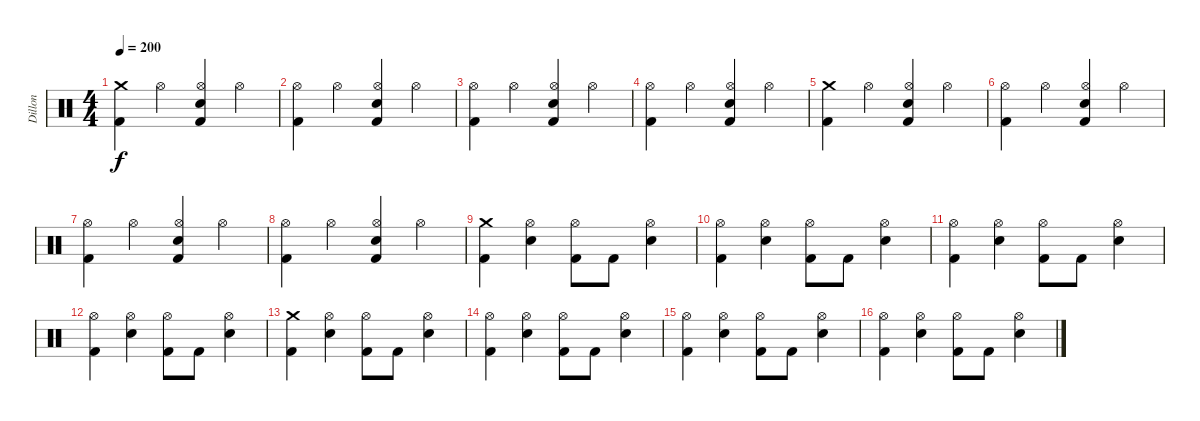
\track ("Dillon" "Dillon") {instrument percussion}
\staff {score}
\articulation defaults
\ts (4 4)
\tempo 200
\clef neutral
\ks c
("Crash medium (hit)" "Kick (hit) 2").4{dy f} "Hi-Hat (open)".4 ("Hi-Hat (open)" "Electric Snare (hit)" "Kick (hit) 2").4 "Hi-Hat (open)".4 |
("Hi-Hat (open)" "Kick (hit) 2").4 "Hi-Hat (open)".4 ("Hi-Hat (open)" "Electric Snare (hit)" "Kick (hit) 2").4 "Hi-Hat (open)".4 |
("Hi-Hat (open)" "Kick (hit) 2").4 "Hi-Hat (open)".4 ("Hi-Hat (open)" "Electric Snare (hit)" "Kick (hit) 2").4 "Hi-Hat (open)".4 |
("Hi-Hat (open)" "Kick (hit) 2").4 "Hi-Hat (open)".4 ("Hi-Hat (open)" "Electric Snare (hit)" "Kick (hit) 2").4 "Hi-Hat (open)".4 |
("Crash medium (hit)" "Kick (hit) 2").4 "Hi-Hat (open)".4 ("Hi-Hat (open)" "Electric Snare (hit)" "Kick (hit) 2").4 "Hi-Hat (open)".4 |
("Hi-Hat (open)" "Kick (hit) 2").4 "Hi-Hat (open)".4 ("Hi-Hat (open)" "Electric Snare (hit)" "Kick (hit) 2").4 "Hi-Hat (open)".4 |
("Hi-Hat (open)" "Kick (hit) 2").4 "Hi-Hat (open)".4 ("Hi-Hat (open)" "Electric Snare (hit)" "Kick (hit) 2").4 "Hi-Hat (open)".4 |
("Hi-Hat (open)" "Kick (hit) 2").4 "Hi-Hat (open)".4 ("Hi-Hat (open)" "Electric Snare (hit)" "Kick (hit) 2").4 "Hi-Hat (open)".4 |
("Crash medium (hit)" "Kick (hit) 2").4 ("Hi-Hat (open)" "Electric Snare (hit)").4 ("Hi-Hat (open)" "Kick (hit) 2").8 "Kick (hit) 2".8 ("Hi-Hat (open)" "Electric Snare (hit)").4 |
("Hi-Hat (open)" "Kick (hit) 2").4 ("Hi-Hat (open)" "Electric Snare (hit)").4 ("Hi-Hat (open)" "Kick (hit) 2").8 "Kick (hit) 2".8 ("Hi-Hat (open)" "Electric Snare (hit)").4 |
("Hi-Hat (open)" "Kick (hit) 2").4 ("Hi-Hat (open)" "Electric Snare (hit)").4 ("Hi-Hat (open)" "Kick (hit) 2").8 "Kick (hit) 2".8 ("Hi-Hat (open)" "Electric Snare (hit)").4 |
("Hi-Hat (open)" "Kick (hit) 2").4 ("Hi-Hat (open)" "Electric Snare (hit)").4 ("Hi-Hat (open)" "Kick (hit) 2").8 "Kick (hit) 2".8 ("Hi-Hat (open)" "Electric Snare (hit)").4 |
("Crash medium (hit)" "Kick (hit) 2").4 ("Hi-Hat (open)" "Electric Snare (hit)").4 ("Hi-Hat (open)" "Kick (hit) 2").8 "Kick (hit) 2".8 ("Hi-Hat (open)" "Electric Snare (hit)").4 |
("Hi-Hat (open)" "Kick (hit) 2").4 ("Hi-Hat (open)" "Electric Snare (hit)").4 ("Hi-Hat (open)" "Kick (hit) 2").8 "Kick (hit) 2".8 ("Hi-Hat (open)" "Electric Snare (hit)").4 |
("Hi-Hat (open)" "Kick (hit) 2").4 ("Hi-Hat (open)" "Electric Snare (hit)").4 ("Hi-Hat (open)" "Kick (hit) 2").8 "Kick (hit) 2".8 ("Hi-Hat (open)" "Electric Snare (hit)").4 |
("Hi-Hat (open)" "Kick (hit) 2").4 ("Hi-Hat (open)" "Electric Snare (hit)").4 ("Hi-Hat (open)" "Kick (hit) 2").8 "Kick (hit) 2".8 ("Hi-Hat (open)" "Electric Snare (hit)").4
